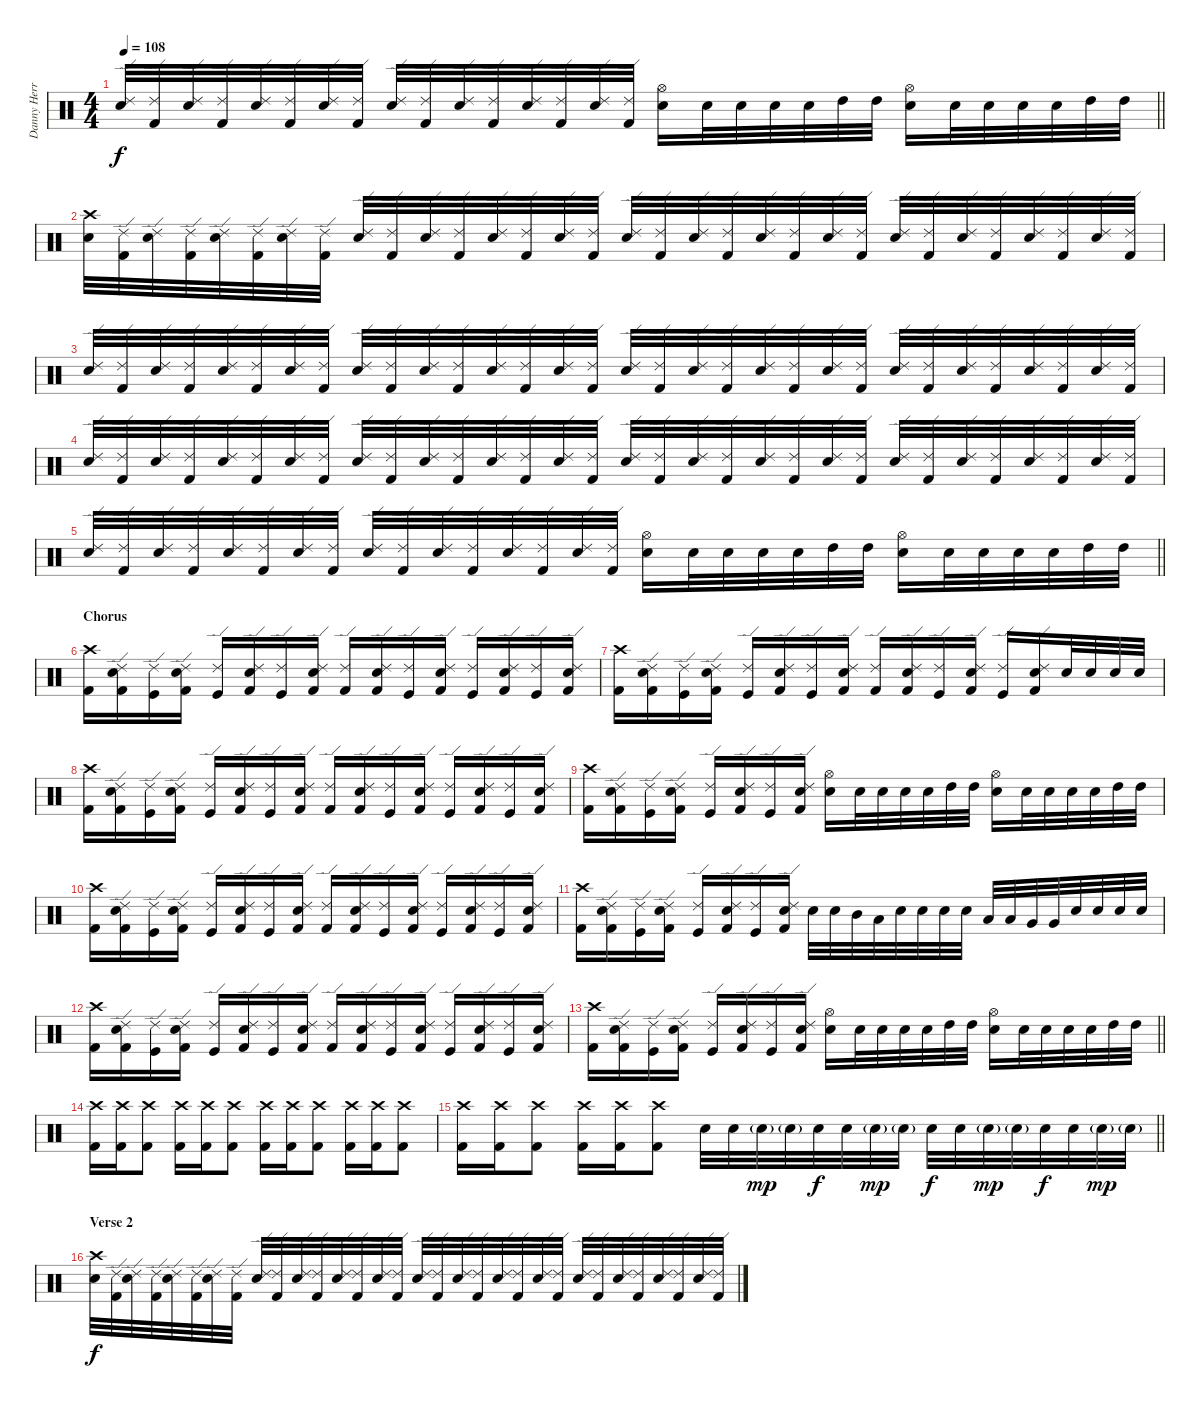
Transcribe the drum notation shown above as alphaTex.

\track ("Danny Herrera " "Danny Herr") {instrument percussion}
\staff {score}
\articulation defaults
\ts (4 4)
\tempo 108
\clef neutral
\barLineRight lightlight
\ks c
("Snare (hit) 2" "Ride (edge) 2").32{dy f} ("Kick (hit) 2" "Ride (edge) 2").32 ("Snare (hit) 2" "Ride (edge) 2").32 ("Kick (hit) 2" "Ride (edge) 2").32 ("Snare (hit) 2" "Ride (edge) 2").32 ("Kick (hit) 2" "Ride (edge) 2").32 ("Snare (hit) 2" "Ride (edge) 2").32 ("Kick (hit) 2" "Ride (edge) 2").32 ("Snare (hit) 2" "Ride (edge) 2").32 ("Kick (hit) 2" "Ride (edge) 2").32 ("Snare (hit) 2" "Ride (edge) 2").32 ("Kick (hit) 2" "Ride (edge) 2").32 ("Snare (hit) 2" "Ride (edge) 2").32 ("Kick (hit) 2" "Ride (edge) 2").32 ("Snare (hit) 2" "Ride (edge) 2").32 ("Kick (hit) 2" "Ride (edge) 2").32 ("Snare (hit) 2" "Hi-Hat (open)").16 "Snare (hit) 2".32 "Snare (hit) 2".32 "Snare (hit) 2".32 "Snare (hit) 2".32 "High Tom (hit)".32 "High Tom (hit)".32 ("Snare (hit) 2" "Hi-Hat (open)").16 "Snare (hit) 2".32 "Snare (hit) 2".32 "Snare (hit) 2".32 "Snare (hit) 2".32 "High Tom (hit)".32 "High Tom (hit)".32 |
("Snare (hit) 2" "Crash high (hit)").32 ("Kick (hit) 2" "Ride (edge) 2").32 ("Snare (hit) 2" "Ride (edge) 2").32 ("Kick (hit) 2" "Ride (edge) 2").32 ("Snare (hit) 2" "Ride (edge) 2").32 ("Kick (hit) 2" "Ride (edge) 2").32 ("Snare (hit) 2" "Ride (edge) 2").32 ("Kick (hit) 2" "Ride (edge) 2").32 ("Snare (hit) 2" "Ride (edge) 2").32 ("Kick (hit) 2" "Ride (edge) 2").32 ("Snare (hit) 2" "Ride (edge) 2").32 ("Kick (hit) 2" "Ride (edge) 2").32 ("Snare (hit) 2" "Ride (edge) 2").32 ("Kick (hit) 2" "Ride (edge) 2").32 ("Snare (hit) 2" "Ride (edge) 2").32 ("Kick (hit) 2" "Ride (edge) 2").32 ("Snare (hit) 2" "Ride (edge) 2").32 ("Kick (hit) 2" "Ride (edge) 2").32 ("Snare (hit) 2" "Ride (edge) 2").32 ("Kick (hit) 2" "Ride (edge) 2").32 ("Snare (hit) 2" "Ride (edge) 2").32 ("Kick (hit) 2" "Ride (edge) 2").32 ("Snare (hit) 2" "Ride (edge) 2").32 ("Kick (hit) 2" "Ride (edge) 2").32 ("Snare (hit) 2" "Ride (edge) 2").32 ("Kick (hit) 2" "Ride (edge) 2").32 ("Snare (hit) 2" "Ride (edge) 2").32 ("Kick (hit) 2" "Ride (edge) 2").32 ("Snare (hit) 2" "Ride (edge) 2").32 ("Kick (hit) 2" "Ride (edge) 2").32 ("Snare (hit) 2" "Ride (edge) 2").32 ("Kick (hit) 2" "Ride (edge) 2").32 |
("Snare (hit) 2" "Ride (edge) 2").32 ("Kick (hit) 2" "Ride (edge) 2").32 ("Snare (hit) 2" "Ride (edge) 2").32 ("Kick (hit) 2" "Ride (edge) 2").32 ("Snare (hit) 2" "Ride (edge) 2").32 ("Kick (hit) 2" "Ride (edge) 2").32 ("Snare (hit) 2" "Ride (edge) 2").32 ("Kick (hit) 2" "Ride (edge) 2").32 ("Snare (hit) 2" "Ride (edge) 2").32 ("Kick (hit) 2" "Ride (edge) 2").32 ("Snare (hit) 2" "Ride (edge) 2").32 ("Kick (hit) 2" "Ride (edge) 2").32 ("Snare (hit) 2" "Ride (edge) 2").32 ("Kick (hit) 2" "Ride (edge) 2").32 ("Snare (hit) 2" "Ride (edge) 2").32 ("Kick (hit) 2" "Ride (edge) 2").32 ("Snare (hit) 2" "Ride (edge) 2").32 ("Kick (hit) 2" "Ride (edge) 2").32 ("Snare (hit) 2" "Ride (edge) 2").32 ("Kick (hit) 2" "Ride (edge) 2").32 ("Snare (hit) 2" "Ride (edge) 2").32 ("Kick (hit) 2" "Ride (edge) 2").32 ("Snare (hit) 2" "Ride (edge) 2").32 ("Kick (hit) 2" "Ride (edge) 2").32 ("Snare (hit) 2" "Ride (edge) 2").32 ("Kick (hit) 2" "Ride (edge) 2").32 ("Snare (hit) 2" "Ride (edge) 2").32 ("Kick (hit) 2" "Ride (edge) 2").32 ("Snare (hit) 2" "Ride (edge) 2").32 ("Kick (hit) 2" "Ride (edge) 2").32 ("Snare (hit) 2" "Ride (edge) 2").32 ("Kick (hit) 2" "Ride (edge) 2").32 |
("Snare (hit) 2" "Ride (edge) 2").32 ("Kick (hit) 2" "Ride (edge) 2").32 ("Snare (hit) 2" "Ride (edge) 2").32 ("Kick (hit) 2" "Ride (edge) 2").32 ("Snare (hit) 2" "Ride (edge) 2").32 ("Kick (hit) 2" "Ride (edge) 2").32 ("Snare (hit) 2" "Ride (edge) 2").32 ("Kick (hit) 2" "Ride (edge) 2").32 ("Snare (hit) 2" "Ride (edge) 2").32 ("Kick (hit) 2" "Ride (edge) 2").32 ("Snare (hit) 2" "Ride (edge) 2").32 ("Kick (hit) 2" "Ride (edge) 2").32 ("Snare (hit) 2" "Ride (edge) 2").32 ("Kick (hit) 2" "Ride (edge) 2").32 ("Snare (hit) 2" "Ride (edge) 2").32 ("Kick (hit) 2" "Ride (edge) 2").32 ("Snare (hit) 2" "Ride (edge) 2").32 ("Kick (hit) 2" "Ride (edge) 2").32 ("Snare (hit) 2" "Ride (edge) 2").32 ("Kick (hit) 2" "Ride (edge) 2").32 ("Snare (hit) 2" "Ride (edge) 2").32 ("Kick (hit) 2" "Ride (edge) 2").32 ("Snare (hit) 2" "Ride (edge) 2").32 ("Kick (hit) 2" "Ride (edge) 2").32 ("Snare (hit) 2" "Ride (edge) 2").32 ("Kick (hit) 2" "Ride (edge) 2").32 ("Snare (hit) 2" "Ride (edge) 2").32 ("Kick (hit) 2" "Ride (edge) 2").32 ("Snare (hit) 2" "Ride (edge) 2").32 ("Kick (hit) 2" "Ride (edge) 2").32 ("Snare (hit) 2" "Ride (edge) 2").32 ("Kick (hit) 2" "Ride (edge) 2").32 |
\barLineRight lightlight
("Snare (hit) 2" "Ride (edge) 2").32 ("Kick (hit) 2" "Ride (edge) 2").32 ("Snare (hit) 2" "Ride (edge) 2").32 ("Kick (hit) 2" "Ride (edge) 2").32 ("Snare (hit) 2" "Ride (edge) 2").32 ("Kick (hit) 2" "Ride (edge) 2").32 ("Snare (hit) 2" "Ride (edge) 2").32 ("Kick (hit) 2" "Ride (edge) 2").32 ("Snare (hit) 2" "Ride (edge) 2").32 ("Kick (hit) 2" "Ride (edge) 2").32 ("Snare (hit) 2" "Ride (edge) 2").32 ("Kick (hit) 2" "Ride (edge) 2").32 ("Snare (hit) 2" "Ride (edge) 2").32 ("Kick (hit) 2" "Ride (edge) 2").32 ("Snare (hit) 2" "Ride (edge) 2").32 ("Kick (hit) 2" "Ride (edge) 2").32 ("Snare (hit) 2" "Hi-Hat (open)").16 "Snare (hit) 2".32 "Snare (hit) 2".32 "Snare (hit) 2".32 "Snare (hit) 2".32 "High Tom (hit)".32 "High Tom (hit)".32 ("Snare (hit) 2" "Hi-Hat (open)").16 "Snare (hit) 2".32 "Snare (hit) 2".32 "Snare (hit) 2".32 "Snare (hit) 2".32 "High Tom (hit)".32 "High Tom (hit)".32 |
\section ("" "Chorus")
("Kick (hit) 2" "Crash high (hit)").16 ("Kick (hit) 2" "Snare (hit) 2" "Ride (edge) 2").16 ("Kick (hit)" "Ride (edge) 2").16 ("Kick (hit) 2" "Snare (hit) 2" "Ride (edge) 2").16 ("Kick (hit)" "Ride (edge) 2").16 ("Kick (hit) 2" "Snare (hit) 2" "Ride (edge) 2").16 ("Kick (hit)" "Ride (edge) 2").16 ("Kick (hit) 2" "Snare (hit) 2" "Ride (edge) 2").16 ("Kick (hit) 2" "Ride (edge) 2").16 ("Kick (hit) 2" "Snare (hit) 2" "Ride (edge) 2").16 ("Kick (hit)" "Ride (edge) 2").16 ("Kick (hit) 2" "Snare (hit) 2" "Ride (edge) 2").16 ("Kick (hit)" "Ride (edge) 2").16 ("Kick (hit) 2" "Snare (hit) 2" "Ride (edge) 2").16 ("Kick (hit)" "Ride (edge) 2").16 ("Kick (hit) 2" "Snare (hit) 2" "Ride (edge) 2").16 |
("Kick (hit) 2" "Crash high (hit)").16 ("Kick (hit) 2" "Snare (hit) 2" "Ride (edge) 2").16 ("Kick (hit)" "Ride (edge) 2").16 ("Kick (hit) 2" "Snare (hit) 2" "Ride (edge) 2").16 ("Kick (hit)" "Ride (edge) 2").16 ("Kick (hit) 2" "Snare (hit) 2" "Ride (edge) 2").16 ("Kick (hit)" "Ride (edge) 2").16 ("Kick (hit) 2" "Snare (hit) 2" "Ride (edge) 2").16 ("Kick (hit) 2" "Ride (edge) 2").16 ("Kick (hit) 2" "Snare (hit) 2" "Ride (edge) 2").16 ("Kick (hit)" "Ride (edge) 2").16 ("Kick (hit) 2" "Snare (hit) 2" "Ride (edge) 2").16 ("Kick (hit)" "Ride (edge) 2").16 ("Kick (hit) 2" "Snare (hit) 2" "Ride (edge) 2").16 "Snare (hit) 2".32 "Snare (hit) 2".32 "Snare (hit) 2".32 "Snare (hit) 2".32 |
("Kick (hit) 2" "Crash high (hit)").16 ("Kick (hit) 2" "Snare (hit) 2" "Ride (edge) 2").16 ("Kick (hit)" "Ride (edge) 2").16 ("Kick (hit) 2" "Snare (hit) 2" "Ride (edge) 2").16 ("Kick (hit)" "Ride (edge) 2").16 ("Kick (hit) 2" "Snare (hit) 2" "Ride (edge) 2").16 ("Kick (hit)" "Ride (edge) 2").16 ("Kick (hit) 2" "Snare (hit) 2" "Ride (edge) 2").16 ("Kick (hit) 2" "Ride (edge) 2").16 ("Kick (hit) 2" "Snare (hit) 2" "Ride (edge) 2").16 ("Kick (hit)" "Ride (edge) 2").16 ("Kick (hit) 2" "Snare (hit) 2" "Ride (edge) 2").16 ("Kick (hit)" "Ride (edge) 2").16 ("Kick (hit) 2" "Snare (hit) 2" "Ride (edge) 2").16 ("Kick (hit)" "Ride (edge) 2").16 ("Kick (hit) 2" "Snare (hit) 2" "Ride (edge) 2").16 |
("Kick (hit) 2" "Crash high (hit)").16 ("Kick (hit) 2" "Snare (hit) 2" "Ride (edge) 2").16 ("Kick (hit)" "Ride (edge) 2").16 ("Kick (hit) 2" "Snare (hit) 2" "Ride (edge) 2").16 ("Kick (hit)" "Ride (edge) 2").16 ("Kick (hit) 2" "Snare (hit) 2" "Ride (edge) 2").16 ("Kick (hit)" "Ride (edge) 2").16 ("Kick (hit) 2" "Snare (hit) 2" "Ride (edge) 2").16 ("Snare (hit) 2" "Hi-Hat (open)").16 "Snare (hit) 2".32 "Snare (hit) 2".32 "Snare (hit) 2".32 "Snare (hit) 2".32 "High Tom (hit)".32 "High Tom (hit)".32 ("Snare (hit) 2" "Hi-Hat (open)").16 "Snare (hit) 2".32 "Snare (hit) 2".32 "Snare (hit) 2".32 "Snare (hit) 2".32 "High Tom (hit)".32 "High Tom (hit)".32 |
("Kick (hit) 2" "Crash high (hit)").16 ("Kick (hit) 2" "Snare (hit) 2" "Ride (edge) 2").16 ("Kick (hit)" "Ride (edge) 2").16 ("Kick (hit) 2" "Snare (hit) 2" "Ride (edge) 2").16 ("Kick (hit)" "Ride (edge) 2").16 ("Kick (hit) 2" "Snare (hit) 2" "Ride (edge) 2").16 ("Kick (hit)" "Ride (edge) 2").16 ("Kick (hit) 2" "Snare (hit) 2" "Ride (edge) 2").16 ("Kick (hit) 2" "Ride (edge) 2").16 ("Kick (hit) 2" "Snare (hit) 2" "Ride (edge) 2").16 ("Kick (hit)" "Ride (edge) 2").16 ("Kick (hit) 2" "Snare (hit) 2" "Ride (edge) 2").16 ("Kick (hit)" "Ride (edge) 2").16 ("Kick (hit) 2" "Snare (hit) 2" "Ride (edge) 2").16 ("Kick (hit)" "Ride (edge) 2").16 ("Kick (hit) 2" "Snare (hit) 2" "Ride (edge) 2").16 |
("Kick (hit) 2" "Crash high (hit)").16 ("Kick (hit) 2" "Snare (hit) 2" "Ride (edge) 2").16 ("Kick (hit)" "Ride (edge) 2").16 ("Kick (hit) 2" "Snare (hit) 2" "Ride (edge) 2").16 ("Kick (hit)" "Ride (edge) 2").16 ("Kick (hit) 2" "Snare (hit) 2" "Ride (edge) 2").16 ("Kick (hit)" "Ride (edge) 2").16 ("Kick (hit) 2" "Snare (hit) 2" "Ride (edge) 2").16 "Snare (hit) 2".32 "Snare (hit) 2".32 "Mid Tom (hit)".32 "Low Tom (hit)".32 "Snare (hit) 2".32 "Snare (hit) 2".32 "Snare (hit) 2".32 "Snare (hit) 2".32 "Low Tom (hit)".32 "Low Tom (hit)".32 "Very Low Tom (hit)".32 "Very Low Tom (hit)".32 "Snare (hit) 2".32 "Snare (hit) 2".32 "Snare (hit) 2".32 "Snare (hit) 2".32 |
("Kick (hit) 2" "Crash high (hit)").16 ("Kick (hit) 2" "Snare (hit) 2" "Ride (edge) 2").16 ("Kick (hit)" "Ride (edge) 2").16 ("Kick (hit) 2" "Snare (hit) 2" "Ride (edge) 2").16 ("Kick (hit)" "Ride (edge) 2").16 ("Kick (hit) 2" "Snare (hit) 2" "Ride (edge) 2").16 ("Kick (hit)" "Ride (edge) 2").16 ("Kick (hit) 2" "Snare (hit) 2" "Ride (edge) 2").16 ("Kick (hit) 2" "Ride (edge) 2").16 ("Kick (hit) 2" "Snare (hit) 2" "Ride (edge) 2").16 ("Kick (hit)" "Ride (edge) 2").16 ("Kick (hit) 2" "Snare (hit) 2" "Ride (edge) 2").16 ("Kick (hit)" "Ride (edge) 2").16 ("Kick (hit) 2" "Snare (hit) 2" "Ride (edge) 2").16 ("Kick (hit)" "Ride (edge) 2").16 ("Kick (hit) 2" "Snare (hit) 2" "Ride (edge) 2").16 |
\barLineRight lightlight
("Kick (hit) 2" "Crash high (hit)").16 ("Kick (hit) 2" "Snare (hit) 2" "Ride (edge) 2").16 ("Kick (hit)" "Ride (edge) 2").16 ("Kick (hit) 2" "Snare (hit) 2" "Ride (edge) 2").16 ("Kick (hit)" "Ride (edge) 2").16 ("Kick (hit) 2" "Snare (hit) 2" "Ride (edge) 2").16 ("Kick (hit)" "Ride (edge) 2").16 ("Kick (hit) 2" "Snare (hit) 2" "Ride (edge) 2").16 ("Snare (hit) 2" "Hi-Hat (open)").16 "Snare (hit) 2".32 "Snare (hit) 2".32 "Snare (hit) 2".32 "Snare (hit) 2".32 "High Tom (hit)".32 "High Tom (hit)".32 ("Snare (hit) 2" "Hi-Hat (open)").16 "Snare (hit) 2".32 "Snare (hit) 2".32 "Snare (hit) 2".32 "Snare (hit) 2".32 "High Tom (hit)".32 "High Tom (hit)".32 |
("Kick (hit) 2" "Crash high (hit)").16 ("Kick (hit) 2" "Crash high (hit)").16 ("Kick (hit) 2" "Crash high (hit)").8 ("Kick (hit) 2" "Crash high (hit)").16 ("Kick (hit) 2" "Crash high (hit)").16 ("Kick (hit) 2" "Crash high (hit)").8 ("Kick (hit) 2" "Crash high (hit)").16 ("Kick (hit) 2" "Crash high (hit)").16 ("Kick (hit) 2" "Crash high (hit)").8 ("Kick (hit) 2" "Crash high (hit)").16 ("Kick (hit) 2" "Crash high (hit)").16 ("Kick (hit) 2" "Crash high (hit)").8 |
\barLineRight lightlight
("Kick (hit) 2" "Crash high (hit)").16 ("Kick (hit) 2" "Crash high (hit)").16 ("Kick (hit) 2" "Crash high (hit)").8 ("Kick (hit) 2" "Crash high (hit)").16 ("Kick (hit) 2" "Crash high (hit)").16 ("Kick (hit) 2" "Crash high (hit)").8 "Snare (hit) 2".32 "Snare (hit) 2".32 "Snare (hit) 2"{g}.32{dy mp} "Snare (hit) 2"{g}.32 "Snare (hit) 2".32{dy f} "Snare (hit) 2".32 "Snare (hit) 2"{g}.32{dy mp} "Snare (hit) 2"{g}.32 "Snare (hit) 2".32{dy f} "Snare (hit) 2".32 "Snare (hit) 2"{g}.32{dy mp} "Snare (hit) 2"{g}.32 "Snare (hit) 2".32{dy f} "Snare (hit) 2".32 "Snare (hit) 2"{g}.32{dy mp} "Snare (hit) 2"{g}.32 |
\section ("" "Verse 2")
("Snare (hit) 2" "Crash high (hit)").32{dy f} ("Kick (hit) 2" "Ride (edge) 2").32 ("Snare (hit) 2" "Ride (edge) 2").32 ("Kick (hit) 2" "Ride (edge) 2").32 ("Snare (hit) 2" "Ride (edge) 2").32 ("Kick (hit) 2" "Ride (edge) 2").32 ("Snare (hit) 2" "Ride (edge) 2").32 ("Kick (hit) 2" "Ride (edge) 2").32 ("Snare (hit) 2" "Ride (edge) 2").32 ("Kick (hit) 2" "Ride (edge) 2").32 ("Snare (hit) 2" "Ride (edge) 2").32 ("Kick (hit) 2" "Ride (edge) 2").32 ("Snare (hit) 2" "Ride (edge) 2").32 ("Kick (hit) 2" "Ride (edge) 2").32 ("Snare (hit) 2" "Ride (edge) 2").32 ("Kick (hit) 2" "Ride (edge) 2").32 ("Snare (hit) 2" "Ride (edge) 2").32 ("Kick (hit) 2" "Ride (edge) 2").32 ("Snare (hit) 2" "Ride (edge) 2").32 ("Kick (hit) 2" "Ride (edge) 2").32 ("Snare (hit) 2" "Ride (edge) 2").32 ("Kick (hit) 2" "Ride (edge) 2").32 ("Snare (hit) 2" "Ride (edge) 2").32 ("Kick (hit) 2" "Ride (edge) 2").32 ("Snare (hit) 2" "Ride (edge) 2").32 ("Kick (hit) 2" "Ride (edge) 2").32 ("Snare (hit) 2" "Ride (edge) 2").32 ("Kick (hit) 2" "Ride (edge) 2").32 ("Snare (hit) 2" "Ride (edge) 2").32 ("Kick (hit) 2" "Ride (edge) 2").32 ("Snare (hit) 2" "Ride (edge) 2").32 ("Kick (hit) 2" "Ride (edge) 2").32
